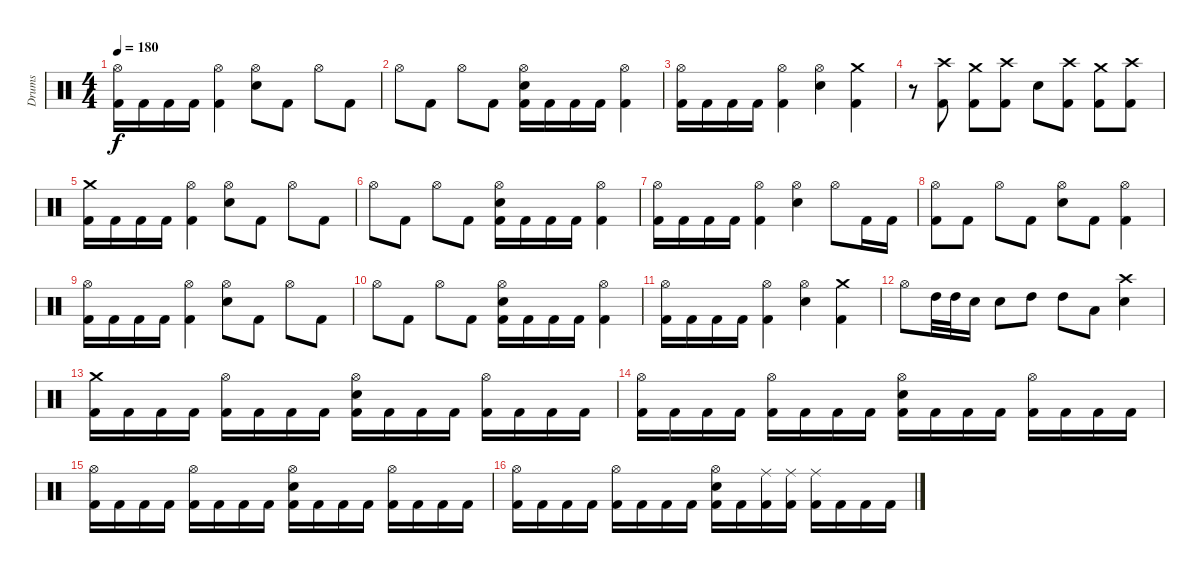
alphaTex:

\track ("Drums" "Drums") {instrument percussion}
\staff {score}
\articulation defaults
\ts (4 4)
\tempo 180
\clef neutral
\ks c
("Hi-Hat (open)" "Kick (hit) 2").16{dy f} "Kick (hit) 2".16 "Kick (hit) 2".16 "Kick (hit) 2".16 ("Hi-Hat (open)" "Kick (hit) 2").4 ("Hi-Hat (open)" "Snare (hit) 2").8 "Kick (hit) 2".8 "Hi-Hat (open)".8 "Kick (hit) 2".8 |
"Hi-Hat (open)".8 "Kick (hit) 2".8 "Hi-Hat (open)".8 "Kick (hit) 2".8 ("Hi-Hat (open)" "Snare (hit) 2" "Kick (hit) 2").16 "Kick (hit) 2".16 "Kick (hit) 2".16 "Kick (hit) 2".16 ("Hi-Hat (open)" "Kick (hit) 2").4 |
("Hi-Hat (open)" "Kick (hit) 2").16 "Kick (hit) 2".16 "Kick (hit) 2".16 "Kick (hit) 2".16 ("Hi-Hat (open)" "Kick (hit) 2").4 ("Hi-Hat (open)" "Snare (hit) 2").4 ("Crash medium (hit)" "Kick (hit) 2").4 |
r.8 ("Crash high (hit)" "Kick (hit) 2").8 ("Crash medium (hit)" "Kick (hit) 2").8 ("Crash high (hit)" "Kick (hit) 2").8 "Snare (hit) 2".8 ("Crash high (hit)" "Kick (hit) 2").8 ("Crash medium (hit)" "Kick (hit) 2").8 ("Crash high (hit)" "Kick (hit) 2").8 |
("Crash medium (hit)" "Kick (hit) 2").16 "Kick (hit) 2".16 "Kick (hit) 2".16 "Kick (hit) 2".16 ("Hi-Hat (open)" "Kick (hit) 2").4 ("Hi-Hat (open)" "Snare (hit) 2").8 "Kick (hit) 2".8 "Hi-Hat (open)".8 "Kick (hit) 2".8 |
"Hi-Hat (open)".8 "Kick (hit) 2".8 "Hi-Hat (open)".8 "Kick (hit) 2".8 ("Hi-Hat (open)" "Snare (hit) 2" "Kick (hit) 2").16 "Kick (hit) 2".16 "Kick (hit) 2".16 "Kick (hit) 2".16 ("Hi-Hat (open)" "Kick (hit) 2").4 |
("Hi-Hat (open)" "Kick (hit) 2").16 "Kick (hit) 2".16 "Kick (hit) 2".16 "Kick (hit) 2".16 ("Hi-Hat (open)" "Kick (hit) 2").4 ("Hi-Hat (open)" "Snare (hit) 2").4 "Hi-Hat (open)".8 "Kick (hit) 2".16 "Kick (hit) 2".16 |
("Hi-Hat (open)" "Kick (hit) 2").8 "Kick (hit) 2".8 "Hi-Hat (open)".8 "Kick (hit) 2".8 ("Hi-Hat (open)" "Snare (hit) 2").8 "Kick (hit) 2".8 ("Hi-Hat (open)" "Kick (hit) 2").4 |
("Hi-Hat (open)" "Kick (hit) 2").16 "Kick (hit) 2".16 "Kick (hit) 2".16 "Kick (hit) 2".16 ("Hi-Hat (open)" "Kick (hit) 2").4 ("Hi-Hat (open)" "Snare (hit) 2").8 "Kick (hit) 2".8 "Hi-Hat (open)".8 "Kick (hit) 2".8 |
"Hi-Hat (open)".8 "Kick (hit) 2".8 "Hi-Hat (open)".8 "Kick (hit) 2".8 ("Hi-Hat (open)" "Snare (hit) 2" "Kick (hit) 2").16 "Kick (hit) 2".16 "Kick (hit) 2".16 "Kick (hit) 2".16 ("Hi-Hat (open)" "Kick (hit) 2").4 |
("Hi-Hat (open)" "Kick (hit) 2").16 "Kick (hit) 2".16 "Kick (hit) 2".16 "Kick (hit) 2".16 ("Hi-Hat (open)" "Kick (hit) 2").4 ("Hi-Hat (open)" "Snare (hit) 2").4 ("Crash medium (hit)" "Kick (hit) 2").4 |
"Hi-Hat (open)".8 "High Tom (hit)".32 "High Tom (hit)".32 "Snare (hit) 2".16 "Snare (hit) 2".8 "High Tom (hit)".8 "High Tom (hit)".8 "Low Tom (hit)".8 ("Crash high (hit)" "Snare (hit) 2").4 |
("Crash medium (hit)" "Kick (hit) 2").16 "Kick (hit) 2".16 "Kick (hit) 2".16 "Kick (hit) 2".16 ("Hi-Hat (open)" "Kick (hit) 2").16 "Kick (hit) 2".16 "Kick (hit) 2".16 "Kick (hit) 2".16 ("Hi-Hat (open)" "Snare (hit) 2" "Kick (hit) 2").16 "Kick (hit) 2".16 "Kick (hit) 2".16 "Kick (hit) 2".16 ("Hi-Hat (open)" "Kick (hit) 2").16 "Kick (hit) 2".16 "Kick (hit) 2".16 "Kick (hit) 2".16 |
("Hi-Hat (open)" "Kick (hit) 2").16 "Kick (hit) 2".16 "Kick (hit) 2".16 "Kick (hit) 2".16 ("Hi-Hat (open)" "Kick (hit) 2").16 "Kick (hit) 2".16 "Kick (hit) 2".16 "Kick (hit) 2".16 ("Hi-Hat (open)" "Snare (hit) 2" "Kick (hit) 2").16 "Kick (hit) 2".16 "Kick (hit) 2".16 "Kick (hit) 2".16 ("Hi-Hat (open)" "Kick (hit) 2").16 "Kick (hit) 2".16 "Kick (hit) 2".16 "Kick (hit) 2".16 |
("Hi-Hat (open)" "Kick (hit) 2").16 "Kick (hit) 2".16 "Kick (hit) 2".16 "Kick (hit) 2".16 ("Hi-Hat (open)" "Kick (hit) 2").16 "Kick (hit) 2".16 "Kick (hit) 2".16 "Kick (hit) 2".16 ("Hi-Hat (open)" "Snare (hit) 2" "Kick (hit) 2").16 "Kick (hit) 2".16 "Kick (hit) 2".16 "Kick (hit) 2".16 ("Hi-Hat (open)" "Kick (hit) 2").16 "Kick (hit) 2".16 "Kick (hit) 2".16 "Kick (hit) 2".16 |
("Hi-Hat (open)" "Kick (hit) 2").16 "Kick (hit) 2".16 "Kick (hit) 2".16 "Kick (hit) 2".16 ("Hi-Hat (open)" "Kick (hit) 2").16 "Kick (hit) 2".16 "Kick (hit) 2".16 "Kick (hit) 2".16 ("Hi-Hat (open)" "Snare (hit) 2" "Kick (hit) 2").16 "Kick (hit) 2".16 ("Ride (middle)" "Kick (hit) 2").16 ("Ride (middle)" "Kick (hit) 2").16 ("Ride (middle)" "Kick (hit) 2").16 "Kick (hit) 2".16 "Kick (hit) 2".16 "Kick (hit) 2".16
